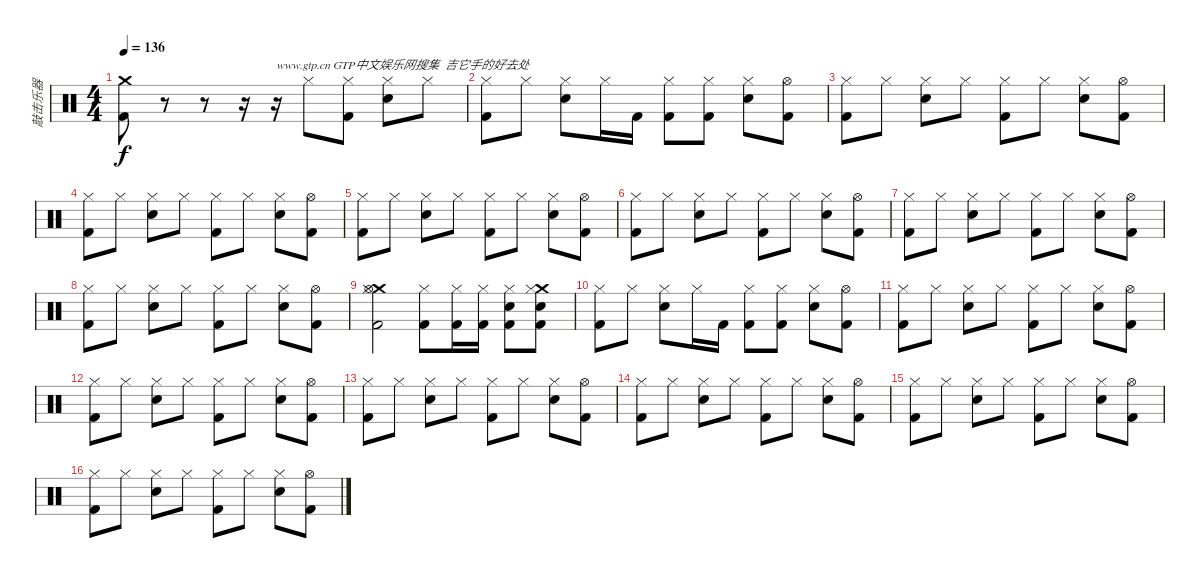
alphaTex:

\track ("敲击乐器" "敲击乐器") {instrument percussion}
\staff {score}
\articulation defaults
\ts (4 4)
\tempo 136
\clef neutral
\ks c
("Crash medium (hit)" "Kick (hit) 2").8{dy f} r.8 r.8 r.16 r.16{txt "www.gtp.cn GTP中文娱乐网搜集  吉它手的好去处"} "Hi-Hat (closed)".8 ("Hi-Hat (closed)" "Kick (hit) 2").8 ("Hi-Hat (closed)" "Electric Snare (hit)").8 "Hi-Hat (closed)".8 |
("Hi-Hat (closed)" "Kick (hit) 2").8 "Hi-Hat (closed)".8 ("Hi-Hat (closed)" "Electric Snare (hit)").8 "Hi-Hat (closed)".16 "Kick (hit) 2".16 ("Hi-Hat (closed)" "Kick (hit) 2").8 ("Hi-Hat (closed)" "Kick (hit) 2").8 ("Hi-Hat (closed)" "Electric Snare (hit)").8 ("Hi-Hat (open)" "Kick (hit) 2").8 |
("Hi-Hat (closed)" "Kick (hit) 2").8 "Hi-Hat (closed)".8 ("Hi-Hat (closed)" "Electric Snare (hit)").8 "Hi-Hat (closed)".8 ("Hi-Hat (closed)" "Kick (hit) 2").8 "Hi-Hat (closed)".8 ("Hi-Hat (closed)" "Electric Snare (hit)").8 ("Hi-Hat (open)" "Kick (hit) 2").8 |
("Hi-Hat (closed)" "Kick (hit) 2").8 "Hi-Hat (closed)".8 ("Hi-Hat (closed)" "Electric Snare (hit)").8 "Hi-Hat (closed)".8 ("Hi-Hat (closed)" "Kick (hit) 2").8 "Hi-Hat (closed)".8 ("Hi-Hat (closed)" "Electric Snare (hit)").8 ("Hi-Hat (open)" "Kick (hit) 2").8 |
("Hi-Hat (closed)" "Kick (hit) 2").8 "Hi-Hat (closed)".8 ("Hi-Hat (closed)" "Electric Snare (hit)").8 "Hi-Hat (closed)".8 ("Hi-Hat (closed)" "Kick (hit) 2").8 "Hi-Hat (closed)".8 ("Hi-Hat (closed)" "Electric Snare (hit)").8 ("Hi-Hat (open)" "Kick (hit) 2").8 |
("Hi-Hat (closed)" "Kick (hit) 2").8 "Hi-Hat (closed)".8 ("Hi-Hat (closed)" "Electric Snare (hit)").8 "Hi-Hat (closed)".8 ("Hi-Hat (closed)" "Kick (hit) 2").8 "Hi-Hat (closed)".8 ("Hi-Hat (closed)" "Electric Snare (hit)").8 ("Hi-Hat (open)" "Kick (hit) 2").8 |
("Hi-Hat (closed)" "Kick (hit) 2").8 "Hi-Hat (closed)".8 ("Hi-Hat (closed)" "Electric Snare (hit)").8 "Hi-Hat (closed)".8 ("Hi-Hat (closed)" "Kick (hit) 2").8 "Hi-Hat (closed)".8 ("Hi-Hat (closed)" "Electric Snare (hit)").8 ("Hi-Hat (open)" "Kick (hit) 2").8 |
("Hi-Hat (closed)" "Kick (hit) 2").8 "Hi-Hat (closed)".8 ("Hi-Hat (closed)" "Electric Snare (hit)").8 "Hi-Hat (closed)".8 ("Hi-Hat (closed)" "Kick (hit) 2").8 "Hi-Hat (closed)".8 ("Hi-Hat (closed)" "Electric Snare (hit)").8 ("Hi-Hat (open)" "Kick (hit) 2").8 |
("Crash medium (hit)" "Hi-Hat (open)" "Hi-Hat (closed)" "Kick (hit) 2").2 ("Kick (hit) 2" "Hi-Hat (closed)").8 ("Kick (hit) 2" "Hi-Hat (closed)").16 ("Kick (hit) 2" "Hi-Hat (closed)").16 ("Snare (hit) 2" "Kick (hit) 2" "Hi-Hat (closed)").8 ("Crash medium (hit)" "Snare (hit) 2" "Kick (hit) 2" "Hi-Hat (closed)").8 |
("Hi-Hat (closed)" "Kick (hit) 2").8 "Hi-Hat (closed)".8 ("Hi-Hat (closed)" "Electric Snare (hit)").8 "Hi-Hat (closed)".16 "Kick (hit) 2".16 ("Hi-Hat (closed)" "Kick (hit) 2").8 ("Hi-Hat (closed)" "Kick (hit) 2").8 ("Hi-Hat (closed)" "Electric Snare (hit)").8 ("Hi-Hat (open)" "Kick (hit) 2").8 |
("Hi-Hat (closed)" "Kick (hit) 2").8 "Hi-Hat (closed)".8 ("Hi-Hat (closed)" "Electric Snare (hit)").8 "Hi-Hat (closed)".8 ("Hi-Hat (closed)" "Kick (hit) 2").8 "Hi-Hat (closed)".8 ("Hi-Hat (closed)" "Electric Snare (hit)").8 ("Hi-Hat (open)" "Kick (hit) 2").8 |
("Hi-Hat (closed)" "Kick (hit) 2").8 "Hi-Hat (closed)".8 ("Hi-Hat (closed)" "Electric Snare (hit)").8 "Hi-Hat (closed)".8 ("Hi-Hat (closed)" "Kick (hit) 2").8 "Hi-Hat (closed)".8 ("Hi-Hat (closed)" "Electric Snare (hit)").8 ("Hi-Hat (open)" "Kick (hit) 2").8 |
("Hi-Hat (closed)" "Kick (hit) 2").8 "Hi-Hat (closed)".8 ("Hi-Hat (closed)" "Electric Snare (hit)").8 "Hi-Hat (closed)".8 ("Hi-Hat (closed)" "Kick (hit) 2").8 "Hi-Hat (closed)".8 ("Hi-Hat (closed)" "Electric Snare (hit)").8 ("Hi-Hat (open)" "Kick (hit) 2").8 |
("Hi-Hat (closed)" "Kick (hit) 2").8 "Hi-Hat (closed)".8 ("Hi-Hat (closed)" "Electric Snare (hit)").8 "Hi-Hat (closed)".8 ("Hi-Hat (closed)" "Kick (hit) 2").8 "Hi-Hat (closed)".8 ("Hi-Hat (closed)" "Electric Snare (hit)").8 ("Hi-Hat (open)" "Kick (hit) 2").8 |
("Hi-Hat (closed)" "Kick (hit) 2").8 "Hi-Hat (closed)".8 ("Hi-Hat (closed)" "Electric Snare (hit)").8 "Hi-Hat (closed)".8 ("Hi-Hat (closed)" "Kick (hit) 2").8 "Hi-Hat (closed)".8 ("Hi-Hat (closed)" "Electric Snare (hit)").8 ("Hi-Hat (open)" "Kick (hit) 2").8 |
("Hi-Hat (closed)" "Kick (hit) 2").8 "Hi-Hat (closed)".8 ("Hi-Hat (closed)" "Electric Snare (hit)").8 "Hi-Hat (closed)".8 ("Hi-Hat (closed)" "Kick (hit) 2").8 "Hi-Hat (closed)".8 ("Hi-Hat (closed)" "Electric Snare (hit)").8 ("Hi-Hat (open)" "Kick (hit) 2").8
